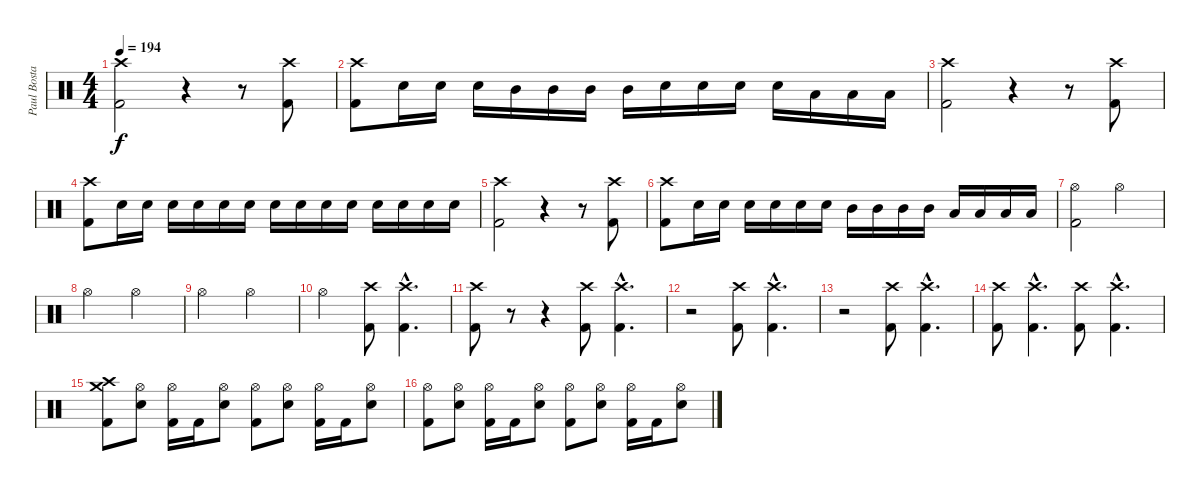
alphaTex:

\track ("Paul Bostaph" "Paul Bosta") {instrument percussion}
\staff {score}
\articulation defaults
\ts (4 4)
\tempo 194
\clef neutral
\ks c
("Crash high (hit)" "Kick (hit) 2").2{dy f} r.4 r.8 ("Crash high (hit)" "Kick (hit) 2").8 |
("Crash high (hit)" "Kick (hit) 2").8 "Electric Snare (hit)".16 "Electric Snare (hit)".16 "Electric Snare (hit)".16 "Mid Tom (hit)".16 "Mid Tom (hit)".16 "Mid Tom (hit)".16 "Mid Tom (hit)".16 "Electric Snare (hit)".16 "Electric Snare (hit)".16 "Electric Snare (hit)".16 "Electric Snare (hit)".16 "Low Tom (hit)".16 "Low Tom (hit)".16 "Low Tom (hit)".16 |
("Crash high (hit)" "Kick (hit) 2").2 r.4 r.8 ("Crash high (hit)" "Kick (hit) 2").8 |
("Crash high (hit)" "Kick (hit) 2").8 "Electric Snare (hit)".16 "Electric Snare (hit)".16 "Electric Snare (hit)".16 "Electric Snare (hit)".16 "Electric Snare (hit)".16 "Electric Snare (hit)".16 "Electric Snare (hit)".16 "Electric Snare (hit)".16 "Electric Snare (hit)".16 "Electric Snare (hit)".16 "Electric Snare (hit)".16 "Electric Snare (hit)".16 "Electric Snare (hit)".16 "Electric Snare (hit)".16 |
("Crash high (hit)" "Kick (hit) 2").2 r.4 r.8 ("Crash high (hit)" "Kick (hit) 2").8 |
("Crash high (hit)" "Kick (hit) 2").8 "Electric Snare (hit)".16 "Electric Snare (hit)".16 "Electric Snare (hit)".16 "Electric Snare (hit)".16 "Electric Snare (hit)".16 "Electric Snare (hit)".16 "Mid Tom (hit)".16 "Mid Tom (hit)".16 "Mid Tom (hit)".16 "Mid Tom (hit)".16 "Low Tom (hit)".16 "Low Tom (hit)".16 "Low Tom (hit)".16 "Low Tom (hit)".16 |
("Hi-Hat (open)" "Kick (hit) 2").2 "Hi-Hat (open)".2 |
"Hi-Hat (open)".2 "Hi-Hat (open)".2 |
"Hi-Hat (open)".2 "Hi-Hat (open)".2 |
"Hi-Hat (open)".2 ("Crash high (hit)" "Kick (hit) 2").8 ("Crash high (hit)"{hac} "Kick (hit) 2"{hac}).4{d} |
("Crash high (hit)" "Kick (hit) 2").8 r.8 r.4 ("Crash high (hit)" "Kick (hit) 2").8 ("Crash high (hit)"{hac} "Kick (hit) 2"{hac}).4{d} |
r.2 ("Crash high (hit)" "Kick (hit) 2").8 ("Crash high (hit)"{hac} "Kick (hit) 2"{hac}).4{d} |
r.2 ("Crash high (hit)" "Kick (hit) 2").8 ("Crash high (hit)"{hac} "Kick (hit) 2"{hac}).4{d} |
("Crash high (hit)" "Kick (hit) 2").8 ("Crash high (hit)"{hac} "Kick (hit) 2"{hac}).4{d} ("Crash high (hit)" "Kick (hit) 2").8 ("Crash high (hit)"{hac} "Kick (hit) 2"{hac}).4{d} |
("Crash medium (hit)" "Crash high (hit)" "Kick (hit) 2").8 ("Hi-Hat (open)" "Electric Snare (hit)").8 ("Hi-Hat (open)" "Kick (hit) 2").16 "Kick (hit) 2".16 ("Hi-Hat (open)" "Electric Snare (hit)").8 ("Hi-Hat (open)" "Kick (hit) 2").8 ("Hi-Hat (open)" "Electric Snare (hit)").8 ("Hi-Hat (open)" "Kick (hit) 2").16 "Kick (hit) 2".16 ("Hi-Hat (open)" "Electric Snare (hit)").8 |
("Hi-Hat (open)" "Kick (hit) 2").8 ("Hi-Hat (open)" "Electric Snare (hit)").8 ("Hi-Hat (open)" "Kick (hit) 2").16 "Kick (hit) 2".16 ("Hi-Hat (open)" "Electric Snare (hit)").8 ("Hi-Hat (open)" "Kick (hit) 2").8 ("Hi-Hat (open)" "Electric Snare (hit)").8 ("Hi-Hat (open)" "Kick (hit) 2").16 "Kick (hit) 2".16 ("Hi-Hat (open)" "Electric Snare (hit)").8
